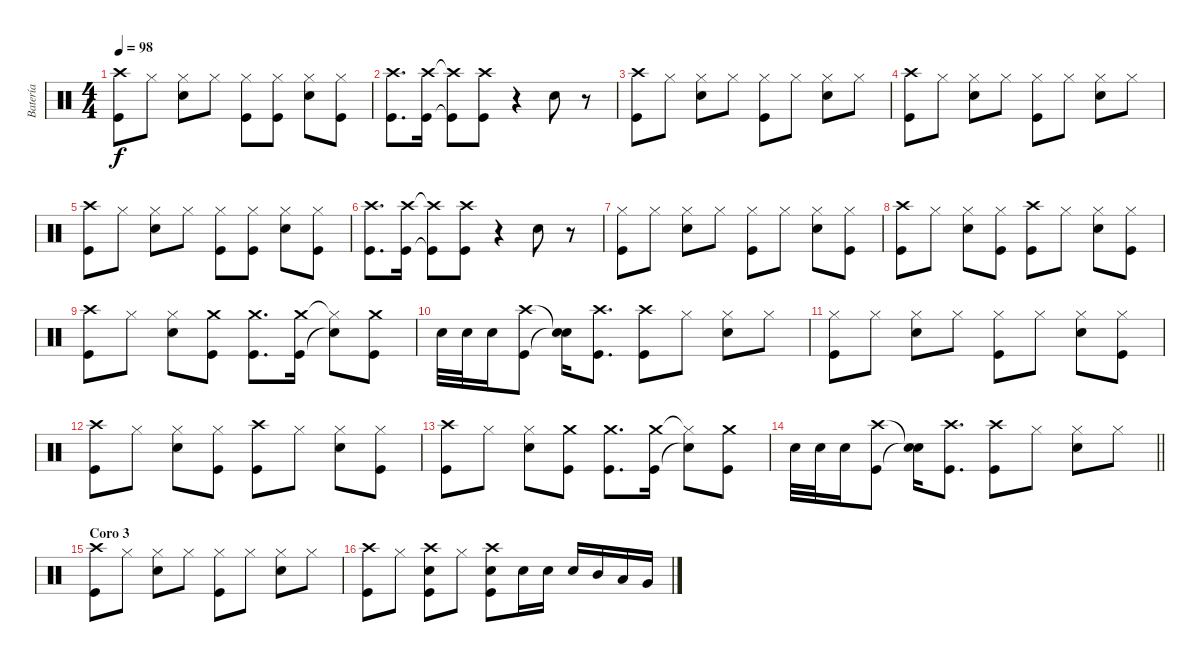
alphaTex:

\track ("Batería" "Batería") {instrument percussion}
\staff {score}
\articulation defaults
\ts (4 4)
\tempo 98
\clef neutral
\ks c
("Crash high (hit)" "Kick (hit)").8{dy f} "Hi-Hat (closed)".8 ("Hi-Hat (closed)" "Electric Snare (hit)").8 "Hi-Hat (closed)".8 ("Hi-Hat (closed)" "Kick (hit)").8 ("Hi-Hat (closed)" "Kick (hit)").8 ("Hi-Hat (closed)" "Electric Snare (hit)").8 ("Hi-Hat (closed)" "Kick (hit)").8 |
("Crash high (hit)" "Kick (hit)").8{d} ("Crash high (hit)" "Kick (hit)").16 ("Crash high (hit)"{t} "Kick (hit)"{t}).8 ("Crash high (hit)" "Kick (hit)").8 r.4 "Electric Snare (hit)".8 r.8 |
("Crash high (hit)" "Kick (hit)").8 "Hi-Hat (closed)".8 ("Hi-Hat (closed)" "Electric Snare (hit)").8 "Hi-Hat (closed)".8 ("Hi-Hat (closed)" "Kick (hit)").8 "Hi-Hat (closed)".8 ("Hi-Hat (closed)" "Electric Snare (hit)").8 "Hi-Hat (closed)".8 |
("Crash high (hit)" "Kick (hit)").8 "Hi-Hat (closed)".8 ("Hi-Hat (closed)" "Electric Snare (hit)").8 "Hi-Hat (closed)".8 ("Hi-Hat (closed)" "Kick (hit)").8 "Hi-Hat (closed)".8 ("Hi-Hat (closed)" "Electric Snare (hit)").8 "Hi-Hat (closed)".8 |
("Crash high (hit)" "Kick (hit)").8 "Hi-Hat (closed)".8 ("Hi-Hat (closed)" "Electric Snare (hit)").8 "Hi-Hat (closed)".8 ("Hi-Hat (closed)" "Kick (hit)").8 ("Hi-Hat (closed)" "Kick (hit)").8 ("Hi-Hat (closed)" "Electric Snare (hit)").8 ("Hi-Hat (closed)" "Kick (hit)").8 |
("Crash high (hit)" "Kick (hit)").8{d} ("Crash high (hit)" "Kick (hit)").16 ("Crash high (hit)"{t} "Kick (hit)"{t}).8 ("Crash high (hit)" "Kick (hit)").8 r.4 "Electric Snare (hit)".8 r.8 |
("Hi-Hat (closed)" "Kick (hit)").8 "Hi-Hat (closed)".8 ("Hi-Hat (closed)" "Electric Snare (hit)").8 "Hi-Hat (closed)".8 ("Hi-Hat (closed)" "Kick (hit)").8 "Hi-Hat (closed)".8 ("Hi-Hat (closed)" "Electric Snare (hit)").8 ("Hi-Hat (closed)" "Kick (hit)").8 |
("Crash high (hit)" "Kick (hit)").8 "Hi-Hat (closed)".8 ("Hi-Hat (closed)" "Electric Snare (hit)").8 ("Hi-Hat (closed)" "Kick (hit)").8 ("Crash high (hit)" "Kick (hit)").8 "Hi-Hat (closed)".8 ("Hi-Hat (closed)" "Electric Snare (hit)").8 ("Hi-Hat (closed)" "Kick (hit)").8 |
("Crash high (hit)" "Kick (hit)").8 "Hi-Hat (closed)".8 ("Hi-Hat (closed)" "Electric Snare (hit)").8 ("Crash medium (hit)" "Kick (hit)").8 ("Crash medium (hit)" "Kick (hit)").8{d} ("Crash medium (hit)" "Kick (hit)").16 ("Hi-Hat (closed)"{t} "Electric Snare (hit)"{t}).8 ("Crash medium (hit)" "Kick (hit)").8 |
"Electric Snare (hit)".32 "Electric Snare (hit)".32 "Electric Snare (hit)".16 ("Crash high (hit)" "Kick (hit)").8 ("Snare (hit)"{t} "Snare (hit)"{t}).16 ("Crash high (hit)" "Kick (hit)").8{d} ("Crash high (hit)" "Kick (hit)").8 "Hi-Hat (closed)".8 ("Hi-Hat (closed)" "Electric Snare (hit)").8 "Hi-Hat (closed)".8 |
("Hi-Hat (closed)" "Kick (hit)").8 "Hi-Hat (closed)".8 ("Hi-Hat (closed)" "Electric Snare (hit)").8 "Hi-Hat (closed)".8 ("Hi-Hat (closed)" "Kick (hit)").8 "Hi-Hat (closed)".8 ("Hi-Hat (closed)" "Electric Snare (hit)").8 ("Hi-Hat (closed)" "Kick (hit)").8 |
("Crash high (hit)" "Kick (hit)").8 "Hi-Hat (closed)".8 ("Hi-Hat (closed)" "Electric Snare (hit)").8 ("Hi-Hat (closed)" "Kick (hit)").8 ("Crash high (hit)" "Kick (hit)").8 "Hi-Hat (closed)".8 ("Hi-Hat (closed)" "Electric Snare (hit)").8 ("Hi-Hat (closed)" "Kick (hit)").8 |
("Crash high (hit)" "Kick (hit)").8 "Hi-Hat (closed)".8 ("Hi-Hat (closed)" "Electric Snare (hit)").8 ("Crash medium (hit)" "Kick (hit)").8 ("Crash medium (hit)" "Kick (hit)").8{d} ("Crash medium (hit)" "Kick (hit)").16 ("Hi-Hat (closed)"{t} "Electric Snare (hit)"{t}).8 ("Crash medium (hit)" "Kick (hit)").8 |
\barLineRight lightlight "Electric Snare (hit)".32 "Electric Snare (hit)".32 "Electric Snare (hit)".16
("Crash high (hit)" "Kick (hit)").8 ("Snare (hit)"{t} "Snare (hit)"{t}).16 ("Crash high (hit)" "Kick (hit)").8{d} ("Crash high (hit)" "Kick (hit)").8 "Hi-Hat (closed)".8 ("Hi-Hat (closed)" "Electric Snare (hit)").8 "Hi-Hat (closed)".8 |
\section ("" "Coro 3")
("Crash high (hit)" "Kick (hit)").8 "Hi-Hat (closed)".8 ("Hi-Hat (closed)" "Electric Snare (hit)").8 "Hi-Hat (closed)".8 ("Hi-Hat (closed)" "Kick (hit)").8 "Hi-Hat (closed)".8 ("Hi-Hat (closed)" "Electric Snare (hit)").8 "Hi-Hat (closed)".8 |
("Crash high (hit)" "Kick (hit)").8 "Hi-Hat (closed)".8 ("Crash high (hit)" "Electric Snare (hit)" "Kick (hit)").8 "Hi-Hat (closed)".8 ("Crash high (hit)" "Electric Snare (hit)" "Kick (hit)").8 "Electric Snare (hit)".16 "Electric Snare (hit)".16 "Electric Snare (hit)".16 "Mid Tom (hit)".16 "Low Tom (hit)".16 "Very Low Tom (hit)".16
